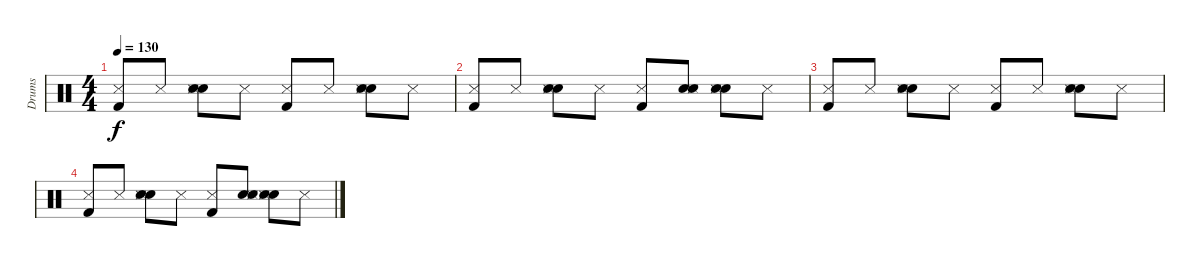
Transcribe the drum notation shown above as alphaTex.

\track ("Drums" "Drums") {instrument percussion}
\staff {score}
\articulation defaults
\ts (4 4)
\tempo 130
\clef neutral
\ks c
("Snare (side stick) 3" "Kick (hit) 2").8{dy f} "Snare (side stick) 3".8 ("Hand Clap (hit)" "Snare (hit) 2" "Snare (side stick) 3").8 "Snare (side stick) 3".8 ("Snare (side stick) 3" "Kick (hit) 2").8 "Snare (side stick) 3".8 ("Hand Clap (hit)" "Snare (hit) 2" "Snare (side stick) 3").8 "Snare (side stick) 3".8 |
("Snare (side stick) 3" "Kick (hit) 2").8 "Snare (side stick) 3".8 ("Hand Clap (hit)" "Snare (hit) 2" "Snare (side stick) 3").8 "Snare (side stick) 3".8 ("Snare (side stick) 3" "Kick (hit) 2").8 ("Hand Clap (hit)" "Snare (hit) 2" "Snare (side stick) 3").8 ("Hand Clap (hit)" "Snare (hit) 2" "Snare (side stick) 3").8 "Snare (side stick) 3".8 |
("Snare (side stick) 3" "Kick (hit) 2").8 "Snare (side stick) 3".8 ("Hand Clap (hit)" "Snare (hit) 2" "Snare (side stick) 3").8 "Snare (side stick) 3".8 ("Snare (side stick) 3" "Kick (hit) 2").8 "Snare (side stick) 3".8 ("Hand Clap (hit)" "Snare (hit) 2" "Snare (side stick) 3").8 "Snare (side stick) 3".8 |
("Snare (side stick) 3" "Kick (hit) 2").8 "Snare (side stick) 3".8 ("Hand Clap (hit)" "Snare (hit) 2" "Snare (side stick) 3").8 "Snare (side stick) 3".8 ("Snare (side stick) 3" "Kick (hit) 2").8 ("Hand Clap (hit)" "Snare (hit) 2" "Snare (side stick) 3").8 ("Hand Clap (hit)" "Snare (hit) 2" "Snare (side stick) 3").8 "Snare (side stick) 3".8
